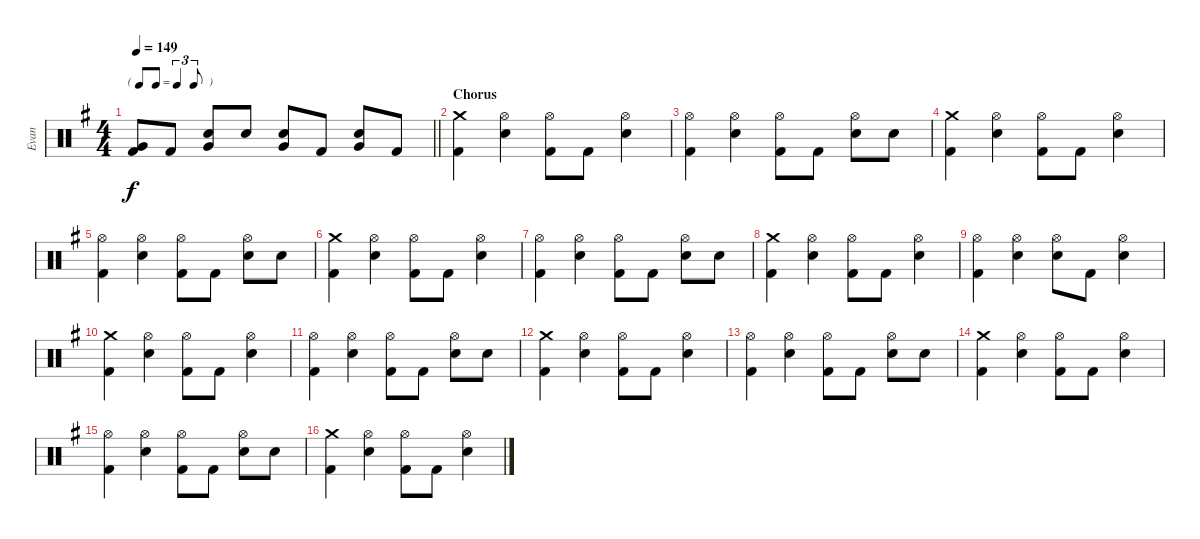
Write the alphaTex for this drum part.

\track ("Evan" "Evan") {instrument percussion}
\staff {score}
\articulation defaults
\ts (4 4)
\tf triplet8th
\tempo 149
\clef neutral
\barLineRight lightlight
\ks g
("Very Low Tom (hit)" "Kick (hit) 2").8{dy f} "Kick (hit) 2".8 ("Electric Snare (hit)" "Very Low Tom (hit)").8 "Electric Snare (hit)".8 ("Electric Snare (hit)" "Very Low Tom (hit)").8 "Kick (hit) 2".8 ("Electric Snare (hit)" "Very Low Tom (hit)").8 "Kick (hit) 2".8 |
\section ("" "Chorus")
("Crash medium (hit)" "Kick (hit) 2").4 ("Hi-Hat (open)" "Electric Snare (hit)").4 ("Hi-Hat (open)" "Kick (hit) 2").8 "Kick (hit) 2".8 ("Hi-Hat (open)" "Electric Snare (hit)").4 |
("Hi-Hat (open)" "Kick (hit) 2").4 ("Hi-Hat (open)" "Electric Snare (hit)").4 ("Hi-Hat (open)" "Kick (hit) 2").8 "Kick (hit) 2".8 ("Hi-Hat (open)" "Electric Snare (hit)").8 "Electric Snare (hit)".8 |
("Crash medium (hit)" "Kick (hit) 2").4 ("Hi-Hat (open)" "Electric Snare (hit)").4 ("Hi-Hat (open)" "Kick (hit) 2").8 "Kick (hit) 2".8 ("Hi-Hat (open)" "Electric Snare (hit)").4 |
("Hi-Hat (open)" "Kick (hit) 2").4 ("Hi-Hat (open)" "Electric Snare (hit)").4 ("Hi-Hat (open)" "Kick (hit) 2").8 "Kick (hit) 2".8 ("Hi-Hat (open)" "Electric Snare (hit)").8 "Electric Snare (hit)".8 |
("Crash medium (hit)" "Kick (hit) 2").4 ("Hi-Hat (open)" "Electric Snare (hit)").4 ("Hi-Hat (open)" "Kick (hit) 2").8 "Kick (hit) 2".8 ("Hi-Hat (open)" "Electric Snare (hit)").4 |
("Hi-Hat (open)" "Kick (hit) 2").4 ("Hi-Hat (open)" "Electric Snare (hit)").4 ("Hi-Hat (open)" "Kick (hit) 2").8 "Kick (hit) 2".8 ("Hi-Hat (open)" "Electric Snare (hit)").8 "Electric Snare (hit)".8 |
("Crash medium (hit)" "Kick (hit) 2").4 ("Hi-Hat (open)" "Electric Snare (hit)").4 ("Hi-Hat (open)" "Kick (hit) 2").8 "Kick (hit) 2".8 ("Hi-Hat (open)" "Electric Snare (hit)").4 |
("Hi-Hat (open)" "Kick (hit) 2").4 ("Hi-Hat (open)" "Electric Snare (hit)").4 ("Hi-Hat (open)" "Electric Snare (hit)").8 "Kick (hit) 2".8 ("Hi-Hat (open)" "Electric Snare (hit)").4 |
("Crash medium (hit)" "Kick (hit) 2").4 ("Hi-Hat (open)" "Electric Snare (hit)").4 ("Hi-Hat (open)" "Kick (hit) 2").8 "Kick (hit) 2".8 ("Hi-Hat (open)" "Electric Snare (hit)").4 |
("Hi-Hat (open)" "Kick (hit) 2").4 ("Hi-Hat (open)" "Electric Snare (hit)").4 ("Hi-Hat (open)" "Kick (hit) 2").8 "Kick (hit) 2".8 ("Hi-Hat (open)" "Electric Snare (hit)").8 "Electric Snare (hit)".8 |
("Crash medium (hit)" "Kick (hit) 2").4 ("Hi-Hat (open)" "Electric Snare (hit)").4 ("Hi-Hat (open)" "Kick (hit) 2").8 "Kick (hit) 2".8 ("Hi-Hat (open)" "Electric Snare (hit)").4 |
("Hi-Hat (open)" "Kick (hit) 2").4 ("Hi-Hat (open)" "Electric Snare (hit)").4 ("Hi-Hat (open)" "Kick (hit) 2").8 "Kick (hit) 2".8 ("Hi-Hat (open)" "Electric Snare (hit)").8 "Electric Snare (hit)".8 |
("Crash medium (hit)" "Kick (hit) 2").4 ("Hi-Hat (open)" "Electric Snare (hit)").4 ("Hi-Hat (open)" "Kick (hit) 2").8 "Kick (hit) 2".8 ("Hi-Hat (open)" "Electric Snare (hit)").4 |
("Hi-Hat (open)" "Kick (hit) 2").4 ("Hi-Hat (open)" "Electric Snare (hit)").4 ("Hi-Hat (open)" "Kick (hit) 2").8 "Kick (hit) 2".8 ("Hi-Hat (open)" "Electric Snare (hit)").8 "Electric Snare (hit)".8 |
("Crash medium (hit)" "Kick (hit) 2").4 ("Hi-Hat (open)" "Electric Snare (hit)").4 ("Hi-Hat (open)" "Kick (hit) 2").8 "Kick (hit) 2".8 ("Hi-Hat (open)" "Electric Snare (hit)").4
